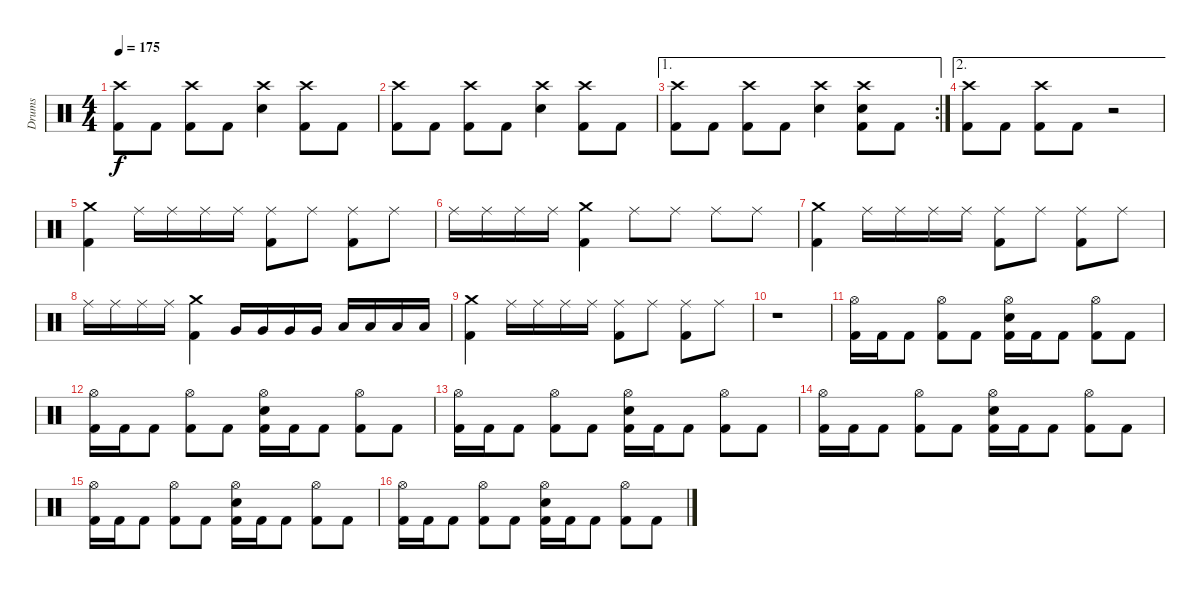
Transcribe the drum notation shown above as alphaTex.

\track ("Drums" "Drums") {instrument percussion}
\staff {score}
\articulation defaults
\ts (4 4)
\tempo 175
\clef neutral
\ks c
("Crash high (hit)" "Kick (hit) 2").8{dy f} "Kick (hit) 2".8 ("Crash high (hit)" "Kick (hit) 2").8 "Kick (hit) 2".8 ("Crash high (hit)" "Snare (hit) 2").4 ("Crash high (hit)" "Kick (hit) 2").8 "Kick (hit) 2".8 |
("Crash high (hit)" "Kick (hit) 2").8 "Kick (hit) 2".8 ("Crash high (hit)" "Kick (hit) 2").8 "Kick (hit) 2".8 ("Crash high (hit)" "Snare (hit) 2").4 ("Crash high (hit)" "Kick (hit) 2").8 "Kick (hit) 2".8 |
\ae 1
\rc 2
("Crash high (hit)" "Kick (hit) 2").8 "Kick (hit) 2".8 ("Crash high (hit)" "Kick (hit) 2").8 "Kick (hit) 2".8 ("Crash high (hit)" "Snare (hit) 2").4 ("Crash high (hit)" "Snare (hit) 2" "Kick (hit) 2").8 "Kick (hit) 2".8 |
\ae 2
("Crash high (hit)" "Kick (hit) 2").8 "Kick (hit) 2".8 ("Crash high (hit)" "Kick (hit) 2").8 "Kick (hit) 2".8 r.2 |
("Crash medium (hit)" "Kick (hit) 2").4 "Ride (middle)".16 "Ride (middle)".16 "Ride (middle)".16 "Ride (middle)".16 ("Ride (middle)" "Kick (hit) 2").8 "Ride (middle)".8 ("Ride (middle)" "Kick (hit) 2").8 "Ride (middle)".8 |
"Ride (middle)".16 "Ride (middle)".16 "Ride (middle)".16 "Ride (middle)".16 ("Crash medium (hit)" "Kick (hit) 2").4 "Ride (middle)".8 "Ride (middle)".8 "Ride (middle)".8 "Ride (middle)".8 |
("Crash medium (hit)" "Kick (hit) 2").4 "Ride (middle)".16 "Ride (middle)".16 "Ride (middle)".16 "Ride (middle)".16 ("Ride (middle)" "Kick (hit) 2").8 "Ride (middle)".8 ("Ride (middle)" "Kick (hit) 2").8 "Ride (middle)".8 |
"Ride (middle)".16 "Ride (middle)".16 "Ride (middle)".16 "Ride (middle)".16 ("Crash medium (hit)" "Kick (hit) 2").4 "Very Low Tom (hit)".16 "Very Low Tom (hit)".16 "Very Low Tom (hit)".16 "Very Low Tom (hit)".16 "Low Tom (hit)".16 "Low Tom (hit)".16 "Low Tom (hit)".16 "Low Tom (hit)".16 |
("Crash medium (hit)" "Kick (hit) 2").4 "Ride (middle)".16 "Ride (middle)".16 "Ride (middle)".16 "Ride (middle)".16 ("Ride (middle)" "Kick (hit) 2").8 "Ride (middle)".8 ("Ride (middle)" "Kick (hit) 2").8 "Ride (middle)".8 |
r.1 |
("Hi-Hat (open)" "Kick (hit) 2").16 "Kick (hit) 2".16 "Kick (hit) 2".8 ("Hi-Hat (open)" "Kick (hit) 2").8 "Kick (hit) 2".8 ("Hi-Hat (open)" "Snare (hit) 2" "Kick (hit) 2").16 "Kick (hit) 2".16 "Kick (hit) 2".8 ("Hi-Hat (open)" "Kick (hit) 2").8 "Kick (hit) 2".8 |
("Hi-Hat (open)" "Kick (hit) 2").16 "Kick (hit) 2".16 "Kick (hit) 2".8 ("Hi-Hat (open)" "Kick (hit) 2").8 "Kick (hit) 2".8 ("Hi-Hat (open)" "Snare (hit) 2" "Kick (hit) 2").16 "Kick (hit) 2".16 "Kick (hit) 2".8 ("Hi-Hat (open)" "Kick (hit) 2").8 "Kick (hit) 2".8 |
("Hi-Hat (open)" "Kick (hit) 2").16 "Kick (hit) 2".16 "Kick (hit) 2".8 ("Hi-Hat (open)" "Kick (hit) 2").8 "Kick (hit) 2".8 ("Hi-Hat (open)" "Snare (hit) 2" "Kick (hit) 2").16 "Kick (hit) 2".16 "Kick (hit) 2".8 ("Hi-Hat (open)" "Kick (hit) 2").8 "Kick (hit) 2".8 |
("Hi-Hat (open)" "Kick (hit) 2").16 "Kick (hit) 2".16 "Kick (hit) 2".8 ("Hi-Hat (open)" "Kick (hit) 2").8 "Kick (hit) 2".8 ("Hi-Hat (open)" "Snare (hit) 2" "Kick (hit) 2").16 "Kick (hit) 2".16 "Kick (hit) 2".8 ("Hi-Hat (open)" "Kick (hit) 2").8 "Kick (hit) 2".8 |
("Hi-Hat (open)" "Kick (hit) 2").16 "Kick (hit) 2".16 "Kick (hit) 2".8 ("Hi-Hat (open)" "Kick (hit) 2").8 "Kick (hit) 2".8 ("Hi-Hat (open)" "Snare (hit) 2" "Kick (hit) 2").16 "Kick (hit) 2".16 "Kick (hit) 2".8 ("Hi-Hat (open)" "Kick (hit) 2").8 "Kick (hit) 2".8 |
("Hi-Hat (open)" "Kick (hit) 2").16 "Kick (hit) 2".16 "Kick (hit) 2".8 ("Hi-Hat (open)" "Kick (hit) 2").8 "Kick (hit) 2".8 ("Hi-Hat (open)" "Snare (hit) 2" "Kick (hit) 2").16 "Kick (hit) 2".16 "Kick (hit) 2".8 ("Hi-Hat (open)" "Kick (hit) 2").8 "Kick (hit) 2".8
